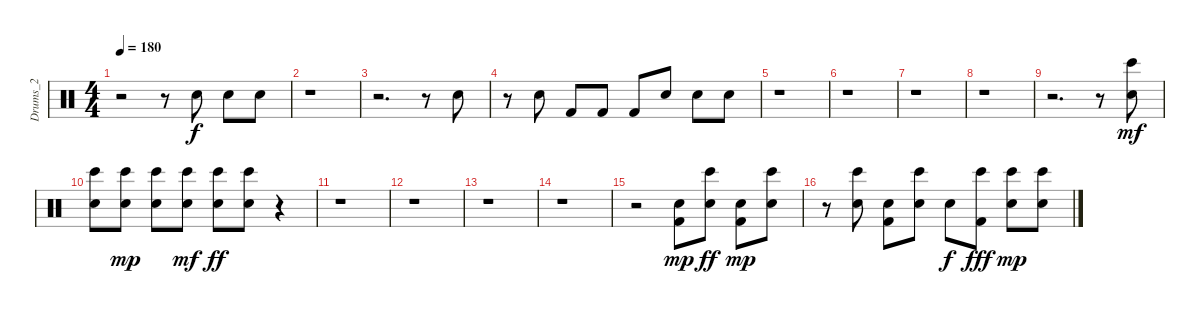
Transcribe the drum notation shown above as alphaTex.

\track ("Drums_2" "Drums_2") {instrument percussion}
\staff {score}
\articulation defaults
\ts (4 4)
\tempo 180
\clef neutral
\ks c
r.2{dy f} r.8 "Snare (hit) 2".8 "Snare (hit) 2".8 "Snare (hit) 2".8 |
r.1 |
r.2{d} r.8 "Snare (hit) 2".8 |
r.8 "Snare (hit) 2".8 "Kick (hit) 2".8 "Kick (hit) 2".8 "Kick (hit) 2".8 "Snare (hit) 2".8 "Snare (hit) 2".8 "Snare (hit) 2".8 |
r.1 |
r.1 |
r.1 |
r.1 |
r.2{d} r.8 ("Bongo High (hit)" "Snare (hit) 2").8{dy mf} |
("Bongo High (hit)" "Snare (hit) 2").8 ("Bongo High (hit)" "Snare (hit) 2").8{dy mp} ("Bongo High (hit)" "Snare (hit) 2").8 ("Bongo High (hit)" "Snare (hit) 2").8{dy mf} ("Bongo High (hit)" "Snare (hit) 2").8{dy ff} ("Bongo High (hit)" "Snare (hit) 2").8 r.4 |
r.1 |
r.1 |
r.1 |
r.1 |
r.2 ("Kick (hit) 2" "Snare (hit) 2").8{dy mp} ("Bongo High (hit)" "Snare (hit) 2").8{dy ff} ("Kick (hit) 2" "Snare (hit) 2").8{dy mp} ("Bongo High (hit)" "Snare (hit) 2").8 |
r.8 ("Bongo High (hit)" "Snare (hit) 2").8 ("Kick (hit) 2" "Snare (hit) 2").8 ("Bongo High (hit)" "Snare (hit) 2").8 "Snare (hit) 2".8{dy f} ("Bongo High (hit)" "Kick (hit) 2").8{dy fff} ("Bongo High (hit)" "Snare (hit) 2").8{dy mp} ("Bongo High (hit)" "Snare (hit) 2").8
